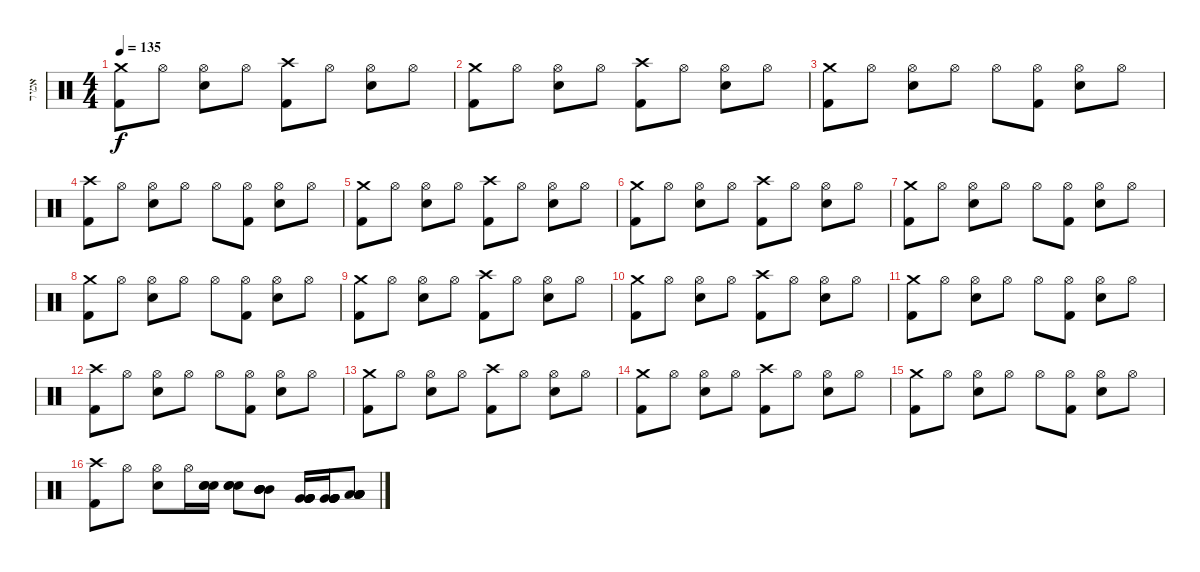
\track ("אמיר" "אמיר") {instrument percussion}
\staff {score}
\articulation defaults
\ts (4 4)
\tempo 135
\clef neutral
\ks c
("Crash medium (hit)" "Kick (hit) 2").8{dy f} "Hi-Hat (open)".8 ("Hi-Hat (open)" "Snare (hit) 2").8 "Hi-Hat (open)".8 ("Crash high (hit)" "Kick (hit) 2").8 "Hi-Hat (open)".8 ("Hi-Hat (open)" "Snare (hit) 2").8 "Hi-Hat (open)".8 |
("Crash medium (hit)" "Kick (hit) 2").8 "Hi-Hat (open)".8 ("Hi-Hat (open)" "Snare (hit) 2").8 "Hi-Hat (open)".8 ("Crash high (hit)" "Kick (hit) 2").8 "Hi-Hat (open)".8 ("Hi-Hat (open)" "Snare (hit) 2").8 "Hi-Hat (open)".8 |
("Crash medium (hit)" "Kick (hit) 2").8 "Hi-Hat (open)".8 ("Hi-Hat (open)" "Snare (hit) 2").8 "Hi-Hat (open)".8 "Hi-Hat (open)".8 ("Hi-Hat (open)" "Kick (hit) 2").8 ("Hi-Hat (open)" "Snare (hit) 2").8 "Hi-Hat (open)".8 |
("Crash high (hit)" "Kick (hit) 2").8 "Hi-Hat (open)".8 ("Hi-Hat (open)" "Snare (hit) 2").8 "Hi-Hat (open)".8 "Hi-Hat (open)".8 ("Hi-Hat (open)" "Kick (hit) 2").8 ("Hi-Hat (open)" "Snare (hit) 2").8 "Hi-Hat (open)".8 |
("Crash medium (hit)" "Kick (hit) 2").8 "Hi-Hat (open)".8 ("Hi-Hat (open)" "Snare (hit) 2").8 "Hi-Hat (open)".8 ("Crash high (hit)" "Kick (hit) 2").8 "Hi-Hat (open)".8 ("Hi-Hat (open)" "Snare (hit) 2").8 "Hi-Hat (open)".8 |
("Crash medium (hit)" "Kick (hit) 2").8 "Hi-Hat (open)".8 ("Hi-Hat (open)" "Snare (hit) 2").8 "Hi-Hat (open)".8 ("Crash high (hit)" "Kick (hit) 2").8 "Hi-Hat (open)".8 ("Hi-Hat (open)" "Snare (hit) 2").8 "Hi-Hat (open)".8 |
("Crash medium (hit)" "Kick (hit) 2").8 "Hi-Hat (open)".8 ("Hi-Hat (open)" "Snare (hit) 2").8 "Hi-Hat (open)".8 "Hi-Hat (open)".8 ("Hi-Hat (open)" "Kick (hit) 2").8 ("Hi-Hat (open)" "Snare (hit) 2").8 "Hi-Hat (open)".8 |
("Crash medium (hit)" "Kick (hit) 2").8 "Hi-Hat (open)".8 ("Hi-Hat (open)" "Snare (hit) 2").8 "Hi-Hat (open)".8 "Hi-Hat (open)".8 ("Hi-Hat (open)" "Kick (hit) 2").8 ("Hi-Hat (open)" "Snare (hit) 2").8 "Hi-Hat (open)".8 |
("Crash medium (hit)" "Kick (hit) 2").8 "Hi-Hat (open)".8 ("Hi-Hat (open)" "Snare (hit) 2").8 "Hi-Hat (open)".8 ("Crash high (hit)" "Kick (hit) 2").8 "Hi-Hat (open)".8 ("Hi-Hat (open)" "Snare (hit) 2").8 "Hi-Hat (open)".8 |
("Crash medium (hit)" "Kick (hit) 2").8 "Hi-Hat (open)".8 ("Hi-Hat (open)" "Snare (hit) 2").8 "Hi-Hat (open)".8 ("Crash high (hit)" "Kick (hit) 2").8 "Hi-Hat (open)".8 ("Hi-Hat (open)" "Snare (hit) 2").8 "Hi-Hat (open)".8 |
("Crash medium (hit)" "Kick (hit) 2").8 "Hi-Hat (open)".8 ("Hi-Hat (open)" "Snare (hit) 2").8 "Hi-Hat (open)".8 "Hi-Hat (open)".8 ("Hi-Hat (open)" "Kick (hit) 2").8 ("Hi-Hat (open)" "Snare (hit) 2").8 "Hi-Hat (open)".8 |
("Crash high (hit)" "Kick (hit) 2").8 "Hi-Hat (open)".8 ("Hi-Hat (open)" "Snare (hit) 2").8 "Hi-Hat (open)".8 "Hi-Hat (open)".8 ("Hi-Hat (open)" "Kick (hit) 2").8 ("Hi-Hat (open)" "Snare (hit) 2").8 "Hi-Hat (open)".8 |
("Crash medium (hit)" "Kick (hit) 2").8 "Hi-Hat (open)".8 ("Hi-Hat (open)" "Snare (hit) 2").8 "Hi-Hat (open)".8 ("Crash high (hit)" "Kick (hit) 2").8 "Hi-Hat (open)".8 ("Hi-Hat (open)" "Snare (hit) 2").8 "Hi-Hat (open)".8 |
("Crash medium (hit)" "Kick (hit) 2").8 "Hi-Hat (open)".8 ("Hi-Hat (open)" "Snare (hit) 2").8 "Hi-Hat (open)".8 ("Crash high (hit)" "Kick (hit) 2").8 "Hi-Hat (open)".8 ("Hi-Hat (open)" "Snare (hit) 2").8 "Hi-Hat (open)".8 |
("Crash medium (hit)" "Kick (hit) 2").8 "Hi-Hat (open)".8 ("Hi-Hat (open)" "Snare (hit) 2").8 "Hi-Hat (open)".8 "Hi-Hat (open)".8 ("Hi-Hat (open)" "Kick (hit) 2").8 ("Hi-Hat (open)" "Snare (hit) 2").8 "Hi-Hat (open)".8 |
("Crash high (hit)" "Kick (hit) 2").8 "Hi-Hat (open)".8 ("Hi-Hat (open)" "Snare (hit) 2").8 "Hi-Hat (open)".16 ("Snare (hit) 2" "Snare (hit) 2" "Snare (hit) 2").16 ("Snare (hit) 2" "Snare (hit) 2" "Snare (hit) 2").8 ("Mid Tom (hit)" "Mid Tom (hit)" "Mid Tom (hit)" "Mid Tom (hit)" "Mid Tom (hit)").8 ("Very Low Tom (hit)" "Very Low Tom (hit)" "Very Low Tom (hit)" "Very Low Tom (hit)" "Very Low Tom (hit)").16 ("Very Low Tom (hit)" "Very Low Tom (hit)" "Very Low Tom (hit)" "Very Low Tom (hit)" "Very Low Tom (hit)").16 ("Low Floor Tom (hit)" "Low Floor Tom (hit)" "Low Floor Tom (hit)" "Low Floor Tom (hit)" "Low Floor Tom (hit)").8
